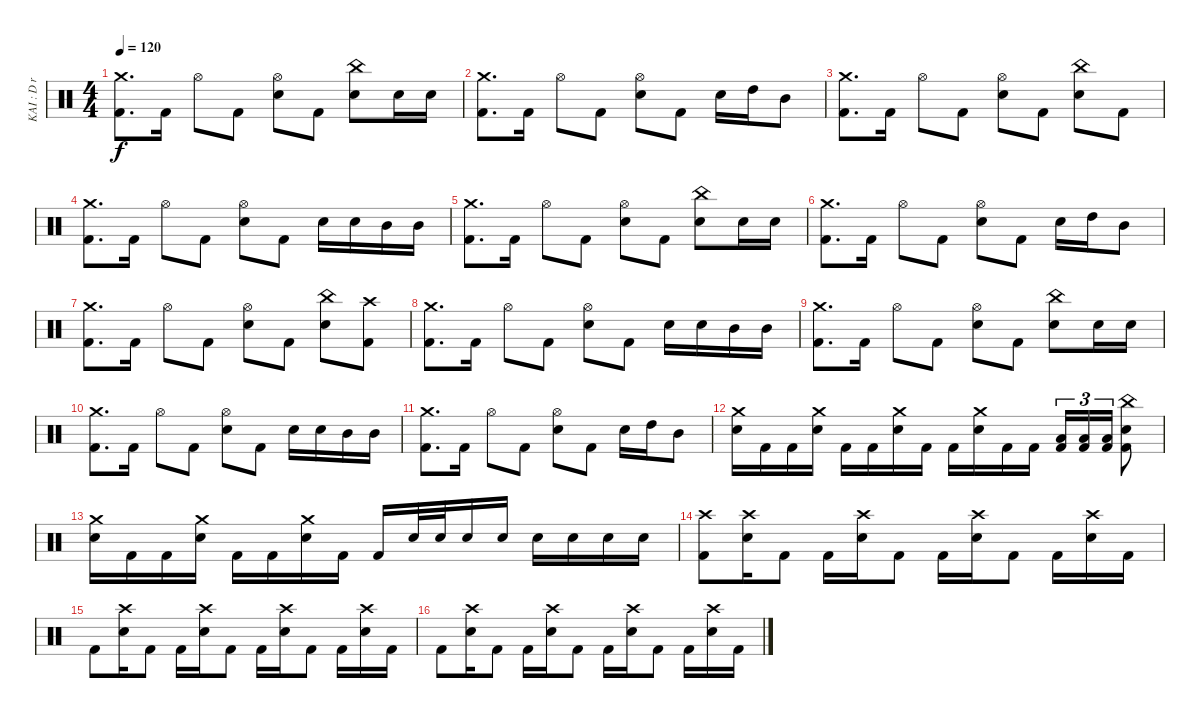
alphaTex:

\track ("KAI : D r u m S" "KAI : D r ") {instrument percussion}
\staff {score}
\articulation defaults
\ts (4 4)
\tempo 120
\clef neutral
\ks c
("Crash medium (hit)" "Kick (hit) 2").8{d dy f} "Kick (hit) 2".16 "Hi-Hat (open)".8 "Kick (hit) 2".8 ("Hi-Hat (open)" "Electric Snare (hit)").8 "Kick (hit) 2".8 ("China (hit)" "Electric Snare (hit)").8 "Electric Snare (hit)".16 "Electric Snare (hit)".16 |
("Crash medium (hit)" "Kick (hit) 2").8{d} "Kick (hit) 2".16 "Hi-Hat (open)".8 "Kick (hit) 2".8 ("Hi-Hat (open)" "Electric Snare (hit)").8 "Kick (hit) 2".8 "Electric Snare (hit)".16 "High Tom (hit)".16 "Mid Tom (hit)".8 |
("Crash medium (hit)" "Kick (hit) 2").8{d} "Kick (hit) 2".16 "Hi-Hat (open)".8 "Kick (hit) 2".8 ("Hi-Hat (open)" "Electric Snare (hit)").8 "Kick (hit) 2".8 ("China (hit)" "Electric Snare (hit)").8 "Kick (hit) 2".8 |
("Crash medium (hit)" "Kick (hit) 2").8{d} "Kick (hit) 2".16 "Hi-Hat (open)".8 "Kick (hit) 2".8 ("Hi-Hat (open)" "Electric Snare (hit)").8 "Kick (hit) 2".8 "Electric Snare (hit)".16 "Electric Snare (hit)".16 "Mid Tom (hit)".16 "Mid Tom (hit)".16 |
("Crash medium (hit)" "Kick (hit) 2").8{d} "Kick (hit) 2".16 "Hi-Hat (open)".8 "Kick (hit) 2".8 ("Hi-Hat (open)" "Electric Snare (hit)").8 "Kick (hit) 2".8 ("China (hit)" "Electric Snare (hit)").8 "Electric Snare (hit)".16 "Electric Snare (hit)".16 |
("Crash medium (hit)" "Kick (hit) 2").8{d} "Kick (hit) 2".16 "Hi-Hat (open)".8 "Kick (hit) 2".8 ("Hi-Hat (open)" "Electric Snare (hit)").8 "Kick (hit) 2".8 "Electric Snare (hit)".16 "High Tom (hit)".16 "Mid Tom (hit)".8 |
("Crash medium (hit)" "Kick (hit) 2").8{d} "Kick (hit) 2".16 "Hi-Hat (open)".8 "Kick (hit) 2".8 ("Hi-Hat (open)" "Electric Snare (hit)").8 "Kick (hit) 2".8 ("China (hit)" "Electric Snare (hit)").8 ("Crash high (hit)" "Kick (hit) 2").8 |
("Crash medium (hit)" "Kick (hit) 2").8{d} "Kick (hit) 2".16 "Hi-Hat (open)".8 "Kick (hit) 2".8 ("Hi-Hat (open)" "Electric Snare (hit)").8 "Kick (hit) 2".8 "Electric Snare (hit)".16 "Electric Snare (hit)".16 "Mid Tom (hit)".16 "Mid Tom (hit)".16 |
("Crash medium (hit)" "Kick (hit) 2").8{d} "Kick (hit) 2".16 "Hi-Hat (open)".8 "Kick (hit) 2".8 ("Hi-Hat (open)" "Electric Snare (hit)").8 "Kick (hit) 2".8 ("China (hit)" "Electric Snare (hit)").8 "Electric Snare (hit)".16 "Electric Snare (hit)".16 |
("Crash medium (hit)" "Kick (hit) 2").8{d} "Kick (hit) 2".16 "Hi-Hat (open)".8 "Kick (hit) 2".8 ("Hi-Hat (open)" "Electric Snare (hit)").8 "Kick (hit) 2".8 "Electric Snare (hit)".16 "Electric Snare (hit)".16 "Mid Tom (hit)".16 "Mid Tom (hit)".16 |
("Crash medium (hit)" "Kick (hit) 2").8{d} "Kick (hit) 2".16 "Hi-Hat (open)".8 "Kick (hit) 2".8 ("Hi-Hat (open)" "Electric Snare (hit)").8 "Kick (hit) 2".8 "Electric Snare (hit)".16 "High Tom (hit)".16 "Mid Tom (hit)".8 |
("Crash medium (hit)" "Electric Snare (hit)").16 "Kick (hit) 2".16 "Kick (hit) 2".16 ("Crash medium (hit)" "Electric Snare (hit)").16 "Kick (hit) 2".16 "Kick (hit) 2".16 ("Crash medium (hit)" "Electric Snare (hit)").16 "Kick (hit) 2".16 "Kick (hit) 2".16 ("Crash medium (hit)" "Electric Snare (hit)").16 "Kick (hit) 2".16 "Kick (hit) 2".16 ("Low Tom (hit)" "Kick (hit) 2").16{tu (3 2)} ("Low Tom (hit)" "Kick (hit) 2").16{tu (3 2)} ("Low Tom (hit)" "Kick (hit) 2").16{tu (3 2)} ("China (hit)" "Electric Snare (hit)" "Kick (hit) 2").8 |
("Crash medium (hit)" "Electric Snare (hit)").16 "Kick (hit) 2".16 "Kick (hit) 2".16 ("Crash medium (hit)" "Electric Snare (hit)").16 "Kick (hit) 2".16 "Kick (hit) 2".16 ("Crash medium (hit)" "Electric Snare (hit)").16 "Kick (hit) 2".16 "Kick (hit) 2".16 "Electric Snare (hit)".32 "Electric Snare (hit)".32 "Electric Snare (hit)".16 "Electric Snare (hit)".16 "Electric Snare (hit)".16 "Electric Snare (hit)".16 "Electric Snare (hit)".16 "Electric Snare (hit)".16 |
("Crash high (hit)" "Kick (hit) 2").8 ("Crash high (hit)" "Electric Snare (hit)").16 "Kick (hit) 2".8 "Kick (hit) 2".16 ("Crash high (hit)" "Electric Snare (hit)").16 "Kick (hit) 2".8 "Kick (hit) 2".16 ("Crash high (hit)" "Electric Snare (hit)").16 "Kick (hit) 2".8 "Kick (hit) 2".16 ("Crash high (hit)" "Electric Snare (hit)").16 "Kick (hit) 2".16 |
"Kick (hit) 2".8 ("Crash high (hit)" "Electric Snare (hit)").16 "Kick (hit) 2".8 "Kick (hit) 2".16 ("Crash high (hit)" "Electric Snare (hit)").16 "Kick (hit) 2".8 "Kick (hit) 2".16 ("Crash high (hit)" "Electric Snare (hit)").16 "Kick (hit) 2".8 "Kick (hit) 2".16 ("Crash high (hit)" "Electric Snare (hit)").16 "Kick (hit) 2".16 |
"Kick (hit) 2".8 ("Crash high (hit)" "Electric Snare (hit)").16 "Kick (hit) 2".8 "Kick (hit) 2".16 ("Crash high (hit)" "Electric Snare (hit)").16 "Kick (hit) 2".8 "Kick (hit) 2".16 ("Crash high (hit)" "Electric Snare (hit)").16 "Kick (hit) 2".8 "Kick (hit) 2".16 ("Crash high (hit)" "Electric Snare (hit)").16 "Kick (hit) 2".16
